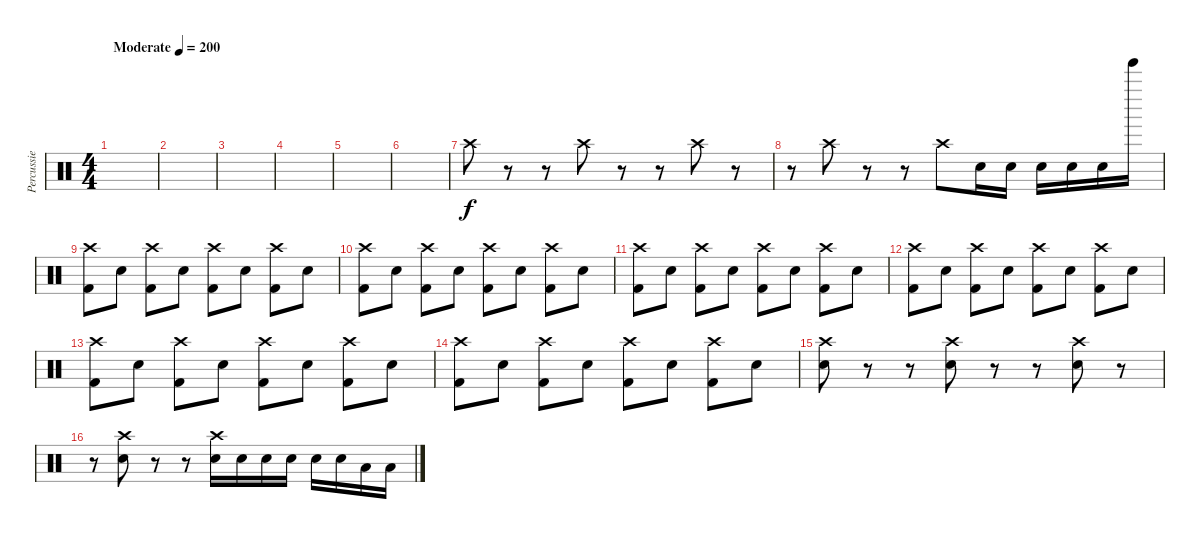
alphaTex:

\track ("Percussie" "Percussie") {instrument percussion}
\staff {score}
\articulation defaults
\ts (4 4)
\tempo (200 "Moderate")
\clef neutral
\ks c
|
|
|
|
|
|
"Crash high (hit)".8 r.8 r.8 "Crash high (hit)".8 r.8 r.8 "Crash high (hit)".8 r.8 |
r.8 "Crash high (hit)".8 r.8 r.8 "Crash high (hit)".8 "Snare (hit) 2".16 "Snare (hit) 2".16 "Snare (hit) 2".16 "Snare (hit) 2".16 "Snare (hit) 2".16 "Tinkle Bell (hit)".16 |
("Crash high (hit)" "Kick (hit) 2").8 "Snare (hit) 2".8 ("Crash high (hit)" "Kick (hit) 2").8 "Snare (hit) 2".8 ("Crash high (hit)" "Kick (hit) 2").8 "Snare (hit) 2".8 ("Crash high (hit)" "Kick (hit) 2").8 "Snare (hit) 2".8 |
("Crash high (hit)" "Kick (hit) 2").8 "Snare (hit) 2".8 ("Crash high (hit)" "Kick (hit) 2").8 "Snare (hit) 2".8 ("Crash high (hit)" "Kick (hit) 2").8 "Snare (hit) 2".8 ("Crash high (hit)" "Kick (hit) 2").8 "Snare (hit) 2".8 |
("Crash high (hit)" "Kick (hit) 2").8 "Snare (hit) 2".8 ("Crash high (hit)" "Kick (hit) 2").8 "Snare (hit) 2".8 ("Crash high (hit)" "Kick (hit) 2").8 "Snare (hit) 2".8 ("Crash high (hit)" "Kick (hit) 2").8 "Snare (hit) 2".8 |
("Crash high (hit)" "Kick (hit) 2").8 "Snare (hit) 2".8 ("Crash high (hit)" "Kick (hit) 2").8 "Snare (hit) 2".8 ("Crash high (hit)" "Kick (hit) 2").8 "Snare (hit) 2".8 ("Crash high (hit)" "Kick (hit) 2").8 "Snare (hit) 2".8 |
("Crash high (hit)" "Kick (hit) 2").8 "Snare (hit) 2".8 ("Crash high (hit)" "Kick (hit) 2").8 "Snare (hit) 2".8 ("Crash high (hit)" "Kick (hit) 2").8 "Snare (hit) 2".8 ("Crash high (hit)" "Kick (hit) 2").8 "Snare (hit) 2".8 |
("Crash high (hit)" "Kick (hit) 2").8 "Snare (hit) 2".8 ("Crash high (hit)" "Kick (hit) 2").8 "Snare (hit) 2".8 ("Crash high (hit)" "Kick (hit) 2").8 "Snare (hit) 2".8 ("Crash high (hit)" "Kick (hit) 2").8 "Snare (hit) 2".8 |
("Crash high (hit)" "Snare (hit) 2").8 r.8 r.8 ("Crash high (hit)" "Snare (hit) 2").8 r.8 r.8 ("Crash high (hit)" "Snare (hit) 2").8 r.8 |
r.8 ("Crash high (hit)" "Snare (hit) 2").8 r.8 r.8 ("Crash high (hit)" "Snare (hit) 2").16 "Snare (hit) 2".16 "Snare (hit) 2".16 "Snare (hit) 2".16 "Snare (hit) 2".16 "Snare (hit) 2".16 "Low Floor Tom (hit)".16 "Low Floor Tom (hit)".16
